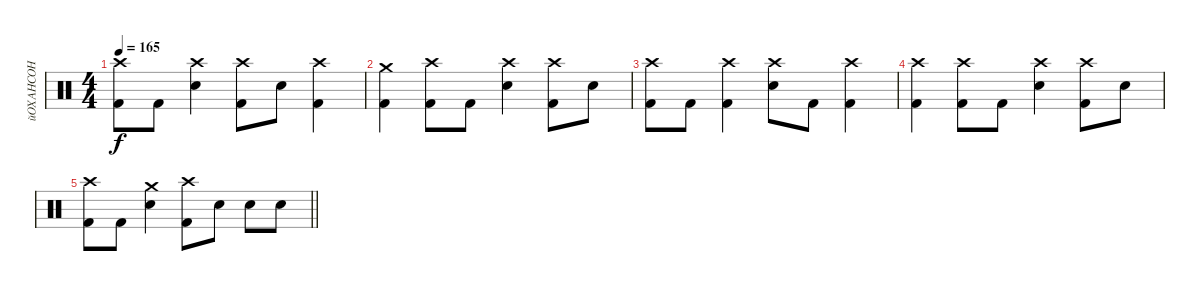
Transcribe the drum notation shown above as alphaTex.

\track ("йОХАНСОН" "йОХАНСОН") {instrument percussion}
\staff {score}
\articulation defaults
\ts (4 4)
\tempo 165
\clef neutral
\ks c
("Crash high (hit)" "Kick (hit) 2").8{dy f} "Kick (hit) 2".8 ("Crash high (hit)" "Snare (hit) 2").4 ("Crash high (hit)" "Kick (hit) 2").8 "Snare (hit) 2".8 ("Crash high (hit)" "Kick (hit) 2").4 |
("Crash medium (hit)" "Kick (hit) 2").4 ("Crash high (hit)" "Kick (hit) 2").8 "Kick (hit) 2".8 ("Crash high (hit)" "Snare (hit) 2").4 ("Crash high (hit)" "Kick (hit) 2").8 "Snare (hit) 2".8 |
("Crash high (hit)" "Kick (hit) 2").8 "Kick (hit) 2".8 ("Crash high (hit)" "Kick (hit) 2").4 ("Crash high (hit)" "Snare (hit) 2").8 "Kick (hit) 2".8 ("Crash high (hit)" "Kick (hit) 2").4 |
("Crash high (hit)" "Kick (hit) 2").4 ("Crash high (hit)" "Kick (hit) 2").8 "Kick (hit) 2".8 ("Crash high (hit)" "Snare (hit) 2").4 ("Crash high (hit)" "Kick (hit) 2").8 "Snare (hit) 2".8 |
\barLineRight lightlight
("Crash high (hit)" "Kick (hit) 2").8 "Kick (hit) 2".8 ("Crash medium (hit)" "Snare (hit) 2").4 ("Crash high (hit)" "Kick (hit) 2").8 "Snare (hit) 2".8 "Snare (hit) 2".8 "Snare (hit) 2".8
